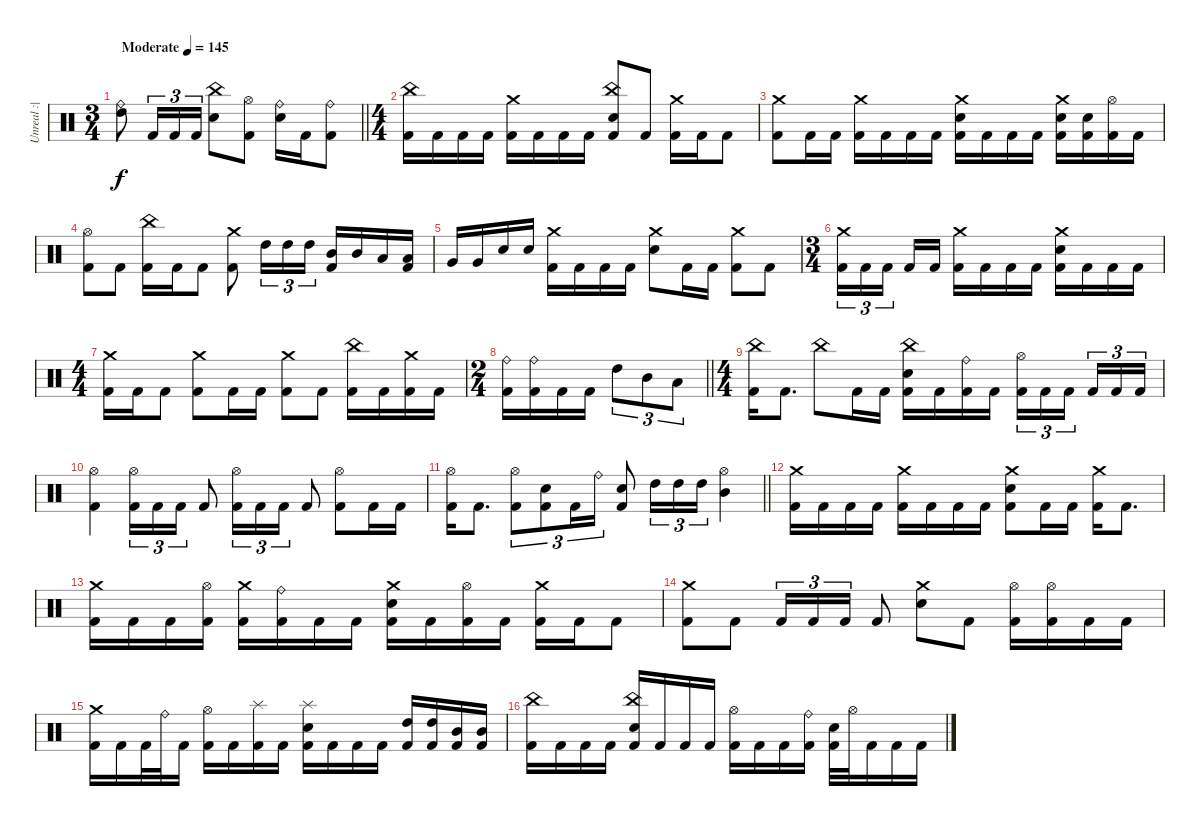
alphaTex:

\track ("Unreal :|" "Unreal :|") {instrument percussion}
\staff {score}
\articulation defaults
\ts (3 4)
\section ("" "")
\tempo (145 "Moderate")
\clef neutral
\barLineRight lightlight
\ks c
("Ride (bell)" "High Tom (hit)").8{dy f} "Kick (hit) 2".16{tu (3 2)} "Kick (hit) 2".16{tu (3 2)} "Kick (hit) 2".16{tu (3 2)} ("China (hit)" "Electric Snare (hit)").8 ("Hi-Hat (open)" "Kick (hit) 2").8 ("Ride (bell)" "Electric Snare (hit)").16 "Kick (hit) 2".16 ("Ride (bell)" "Kick (hit) 2").8 |
\ts (4 4)
\section ("" "")
("China (hit)" "Kick (hit) 2").16 "Kick (hit) 2".16 "Kick (hit) 2".16 "Kick (hit) 2".16 ("Crash medium (hit)" "Kick (hit) 2").16 "Kick (hit) 2".16 "Kick (hit) 2".16 "Kick (hit) 2".16 ("China (hit)" "Electric Snare (hit)" "Kick (hit) 2").8 "Kick (hit) 2".8 ("Crash medium (hit)" "Kick (hit) 2").16 "Kick (hit) 2".16 "Kick (hit) 2".8 |
("Crash medium (hit)" "Kick (hit) 2").8 "Kick (hit) 2".16 "Kick (hit) 2".16 ("Crash medium (hit)" "Kick (hit) 2").16 "Kick (hit) 2".16 "Kick (hit) 2".16 "Kick (hit) 2".16 ("Crash medium (hit)" "Electric Snare (hit)" "Kick (hit) 2").16 "Kick (hit) 2".16 "Kick (hit) 2".16 "Kick (hit) 2".16 ("Crash medium (hit)" "Electric Snare (hit)" "Kick (hit) 2").16 ("Electric Snare (hit)" "Kick (hit) 2").16 ("Hi-Hat (open)" "Kick (hit) 2").16 "Kick (hit) 2".16 |
("Hi-Hat (open)" "Kick (hit) 2").8 "Kick (hit) 2".8 ("China (hit)" "Kick (hit) 2").16 "Kick (hit) 2".16 "Kick (hit) 2".8 ("Crash medium (hit)" "Kick (hit) 2").8 "High Tom (hit)".16{tu (3 2)} "High Tom (hit)".16{tu (3 2)} "High Tom (hit)".16{tu (3 2)} ("Mid Tom (hit)" "Kick (hit) 2").16 "Mid Tom (hit)".16 "Low Tom (hit)".16 ("Low Tom (hit)" "Kick (hit) 2").16 |
"Very Low Tom (hit)".16 "Very Low Tom (hit)".16 "Electric Snare (hit)".16 "Electric Snare (hit)".16 ("Crash medium (hit)" "Kick (hit) 2").16 "Kick (hit) 2".16 "Kick (hit) 2".16 "Kick (hit) 2".16 ("Crash medium (hit)" "Electric Snare (hit)").8 "Kick (hit) 2".16 "Kick (hit) 2".16 ("Crash medium (hit)" "Kick (hit) 2").8 "Kick (hit) 2".8 |
\ts (3 4)
("Crash medium (hit)" "Kick (hit) 2").16{tu (3 2)} "Kick (hit) 2".16{tu (3 2)} "Kick (hit) 2".16{tu (3 2) beam splitsecondary} "Kick (hit) 2".16 "Kick (hit) 2".16 ("Crash medium (hit)" "Kick (hit) 2").16 "Kick (hit) 2".16 "Kick (hit) 2".16 "Kick (hit) 2".16 ("Crash medium (hit)" "Electric Snare (hit)" "Kick (hit) 2").16 "Kick (hit) 2".16 "Kick (hit) 2".16 "Kick (hit) 2".16 |
\ts (4 4)
("Crash medium (hit)" "Kick (hit) 2").16 "Kick (hit) 2".16 "Kick (hit) 2".8 ("Crash medium (hit)" "Kick (hit) 2").8 "Kick (hit) 2".16 "Kick (hit) 2".16 ("Crash medium (hit)" "Kick (hit) 2").8 "Kick (hit) 2".8 ("China (hit)" "Kick (hit) 2").16 "Kick (hit) 2".16 ("Crash medium (hit)" "Kick (hit) 2").16 "Kick (hit) 2".16 |
\ts (2 4)
\barLineRight lightlight
("Ride (bell)" "Kick (hit) 2").16 ("Ride (bell)" "Kick (hit) 2").16 "Kick (hit) 2".16 "Kick (hit) 2".16 "High Tom (hit)".8{tu (3 2)} "Mid Tom (hit)".8{tu (3 2)} "Low Tom (hit)".8{tu (3 2)} |
\ts (4 4)
\section ("" "")
("China (hit)" "Kick (hit) 2").16 "Kick (hit) 2".8{d} "China (hit)".8 "Kick (hit) 2".16 "Kick (hit) 2".16 ("China (hit)" "Electric Snare (hit)" "Kick (hit) 2").16 "Kick (hit) 2".16 ("Ride (bell)" "Kick (hit) 2").16 "Kick (hit) 2".16 ("Hi-Hat (open)" "Kick (hit) 2").16{tu (3 2)} "Kick (hit) 2".16{tu (3 2)} "Kick (hit) 2".16{tu (3 2) beam splitsecondary} "Kick (hit) 2".16{tu (3 2)} "Kick (hit) 2".16{tu (3 2)} "Kick (hit) 2".16{tu (3 2)} |
("Hi-Hat (open)" "Kick (hit) 2").4 ("Hi-Hat (open)" "Kick (hit) 2").16{tu (3 2)} "Kick (hit) 2".16{tu (3 2)} "Kick (hit) 2".16{tu (3 2)} "Kick (hit) 2".8 ("Hi-Hat (open)" "Kick (hit) 2").16{tu (3 2)} "Kick (hit) 2".16{tu (3 2)} "Kick (hit) 2".16{tu (3 2)} "Kick (hit) 2".8 ("Hi-Hat (open)" "Kick (hit) 2").8 "Kick (hit) 2".16 "Kick (hit) 2".16 |
\barLineRight lightlight
("Hi-Hat (open)" "Kick (hit) 2").16 "Kick (hit) 2".8{d} ("Hi-Hat (open)" "Kick (hit) 2").8{tu (3 2)} ("Electric Snare (hit)" "Kick (hit) 2").8{tu (3 2)} "Kick (hit) 2".16{tu (3 2)} "Ride (bell)".16{tu (3 2)} ("Electric Snare (hit)" "Kick (hit) 2").8 "High Tom (hit)".16{tu (3 2)} "High Tom (hit)".16{tu (3 2)} "High Tom (hit)".16{tu (3 2)} ("Hi-Hat (open)" "Mid Tom (hit)").4 |
\section ("" "")
("Crash medium (hit)" "Kick (hit) 2").16 "Kick (hit) 2".16 "Kick (hit) 2".16 "Kick (hit) 2".16 ("Crash medium (hit)" "Kick (hit) 2").16 "Kick (hit) 2".16 "Kick (hit) 2".16 "Kick (hit) 2".16 ("Crash medium (hit)" "Electric Snare (hit)" "Kick (hit) 2").8 "Kick (hit) 2".16 "Kick (hit) 2".16 ("Crash medium (hit)" "Kick (hit) 2").16 "Kick (hit) 2".8{d} |
("Crash medium (hit)" "Kick (hit) 2").16 "Kick (hit) 2".16 "Kick (hit) 2".16 ("Hi-Hat (open)" "Kick (hit) 2").16 ("Crash medium (hit)" "Kick (hit) 2").16 ("Ride (bell)" "Kick (hit) 2").16 "Kick (hit) 2".16 "Kick (hit) 2".16 ("Crash medium (hit)" "Electric Snare (hit)" "Kick (hit) 2").16 "Kick (hit) 2".16 ("Hi-Hat (open)" "Kick (hit) 2").16 "Kick (hit) 2".16 ("Crash medium (hit)" "Kick (hit) 2").16 "Kick (hit) 2".16 "Kick (hit) 2".8 |
("Crash medium (hit)" "Kick (hit) 2").8 "Kick (hit) 2".8 "Kick (hit) 2".16{tu (3 2)} "Kick (hit) 2".16{tu (3 2)} "Kick (hit) 2".16{tu (3 2)} "Kick (hit) 2".8 ("Crash medium (hit)" "Electric Snare (hit)").8 "Kick (hit) 2".8 ("Hi-Hat (open)" "Kick (hit) 2").16 ("Hi-Hat (open)" "Kick (hit) 2").16 "Kick (hit) 2".16 "Kick (hit) 2".16 |
("Crash medium (hit)" "Kick (hit) 2").16 "Kick (hit) 2".16 "Kick (hit) 2".32 "Ride (bell)".32 "Kick (hit) 2".16 ("Hi-Hat (open)" "Kick (hit) 2").16 "Kick (hit) 2".16 ("Splash (hit)" "Kick (hit) 2").16 "Kick (hit) 2".16 ("Splash (hit)" "Electric Snare (hit)" "Kick (hit) 2").16 "Kick (hit) 2".16 "Kick (hit) 2".16 "Kick (hit) 2".16 ("High Tom (hit)" "Kick (hit) 2").16 ("High Tom (hit)" "Kick (hit) 2").16 ("Mid Tom (hit)" "Kick (hit) 2").16 ("Mid Tom (hit)" "Kick (hit) 2").16 |
("China (hit)" "Kick (hit) 2").16 "Kick (hit) 2".16 "Kick (hit) 2".16 "Kick (hit) 2".16 ("China (hit)" "Electric Snare (hit)" "Kick (hit) 2").16 "Kick (hit) 2".16 "Kick (hit) 2".16 "Kick (hit) 2".16 ("Hi-Hat (open)" "Kick (hit) 2").16 "Kick (hit) 2".16 "Kick (hit) 2".16 ("Ride (bell)" "Kick (hit) 2").16 ("Electric Snare (hit)" "Kick (hit) 2").32 "Hi-Hat (open)".32 "Kick (hit) 2".16 "Kick (hit) 2".16 "Kick (hit) 2".16
